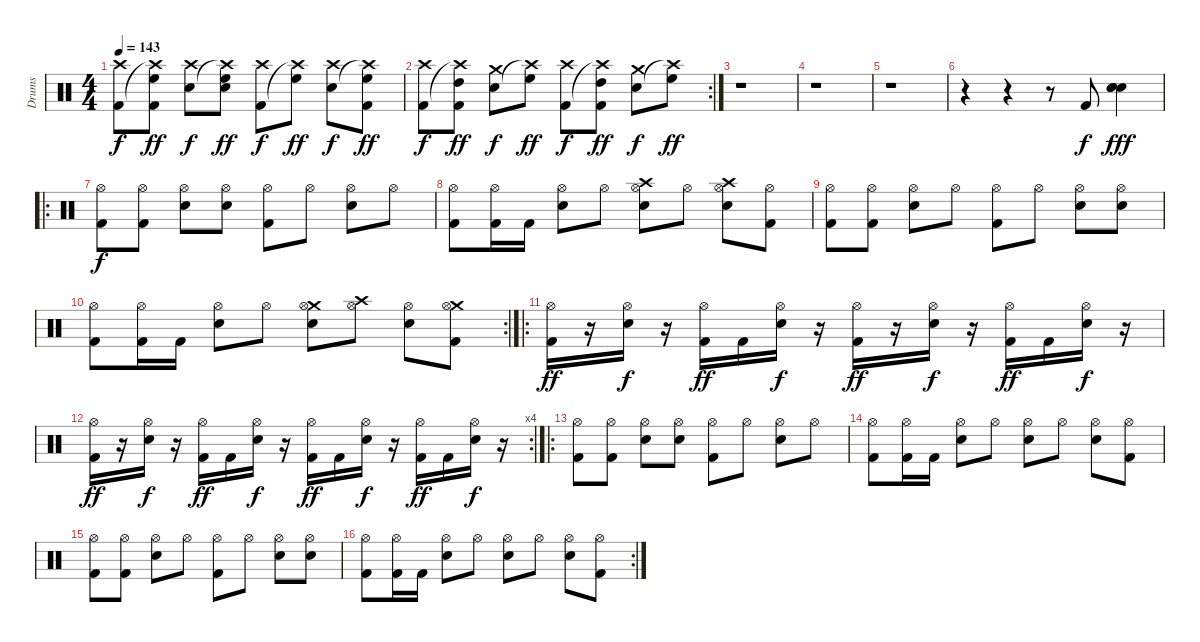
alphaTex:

\track ("Drums" "Drums") {instrument percussion}
\staff {score}
\articulation defaults
\ts (4 4)
\tempo 143
\clef neutral
\ks c
("Crash high (hit)" "Kick (hit) 2").8{dy f} ("High Floor Tom (hit)" "Crash high (hit)"{t} "Kick (hit) 2").8{dy ff} ("Crash high (hit)" "Electric Snare (hit)").8{dy f} ("High Floor Tom (hit)" "Crash high (hit)"{t} "Electric Snare (hit)").8{dy ff} ("Crash high (hit)" "Kick (hit) 2").8{dy f} ("High Floor Tom (hit)" "Crash high (hit)"{t}).8{dy ff} ("Crash high (hit)" "Electric Snare (hit)").8{dy f} ("High Floor Tom (hit)" "Crash high (hit)"{t} "Kick (hit) 2").8{dy ff} |
\rc 2
("Crash high (hit)" "Kick (hit) 2").8{dy f} ("High Tom (hit)" "Crash high (hit)"{t} "Kick (hit) 2").8{dy ff} ("Crash medium (hit)" "Electric Snare (hit)").8{dy f} ("High Floor Tom (hit)" "Crash high (hit)"{t}).8{dy ff} ("Crash high (hit)" "Kick (hit) 2").8{dy f} ("High Tom (hit)" "Crash high (hit)"{t} "Kick (hit) 2").8{dy ff} ("Crash medium (hit)" "Electric Snare (hit)").8{dy f} ("High Floor Tom (hit)" "Crash high (hit)"{t}).8{dy ff} |
r.1 |
r.1 |
r.1 |
r.4 r.4 r.8 "Kick (hit) 2".8{dy f} ("Electric Snare (hit)" "Electric Snare (hit)" "Electric Snare (hit)").4{dy fff} |
\ro
("Hi-Hat (open)" "Kick (hit) 2").8{dy f} ("Hi-Hat (open)" "Kick (hit) 2").8 ("Hi-Hat (open)" "Electric Snare (hit)").8 ("Hi-Hat (open)" "Electric Snare (hit)").8 ("Hi-Hat (open)" "Kick (hit) 2").8 "Hi-Hat (open)".8 ("Hi-Hat (open)" "Electric Snare (hit)").8 "Hi-Hat (open)".8 |
("Hi-Hat (open)" "Kick (hit) 2").8 ("Hi-Hat (open)" "Kick (hit) 2").16 "Kick (hit) 2".16 ("Hi-Hat (open)" "Electric Snare (hit)").8 "Hi-Hat (open)".8 ("Crash high (hit)" "Hi-Hat (open)" "Electric Snare (hit)").8 "Hi-Hat (open)".8 ("Crash high (hit)" "Hi-Hat (open)" "Electric Snare (hit)").8 ("Hi-Hat (open)" "Kick (hit) 2").8 |
("Hi-Hat (open)" "Kick (hit) 2").8 ("Hi-Hat (open)" "Kick (hit) 2").8 ("Hi-Hat (open)" "Electric Snare (hit)").8 "Hi-Hat (open)".8 ("Hi-Hat (open)" "Kick (hit) 2").8 "Hi-Hat (open)".8 ("Hi-Hat (open)" "Electric Snare (hit)").8 ("Hi-Hat (open)" "Electric Snare (hit)").8 |
\rc 2
("Hi-Hat (open)" "Kick (hit) 2").8 ("Hi-Hat (open)" "Kick (hit) 2").16 "Kick (hit) 2".16 ("Hi-Hat (open)" "Electric Snare (hit)").8 "Hi-Hat (open)".8 ("Crash medium (hit)" "Hi-Hat (open)" "Electric Snare (hit)").8 ("Crash high (hit)" "Hi-Hat (open)").8 ("Hi-Hat (open)" "Electric Snare (hit)").8 ("Crash medium (hit)" "Hi-Hat (open)" "Kick (hit) 2").8 |
\ro
("Hi-Hat (open)" "Kick (hit) 2").16{dy ff} r.16 ("Hi-Hat (open)" "Electric Snare (hit)").16{dy f} r.16 ("Hi-Hat (open)" "Kick (hit) 2").16{dy ff} "Kick (hit) 2".16 ("Hi-Hat (open)" "Electric Snare (hit)").16{dy f} r.16 ("Hi-Hat (open)" "Kick (hit) 2").16{dy ff} r.16 ("Hi-Hat (open)" "Electric Snare (hit)").16{dy f} r.16 ("Hi-Hat (open)" "Kick (hit) 2").16{dy ff} "Kick (hit) 2".16 ("Hi-Hat (open)" "Electric Snare (hit)").16{dy f} r.16 |
\rc 4
("Hi-Hat (open)" "Kick (hit) 2").16{dy ff} r.16 ("Hi-Hat (open)" "Electric Snare (hit)").16{dy f} r.16 ("Hi-Hat (open)" "Kick (hit) 2").16{dy ff} "Kick (hit) 2".16 ("Hi-Hat (open)" "Electric Snare (hit)").16{dy f} r.16 ("Hi-Hat (open)" "Kick (hit) 2").16{dy ff} "Kick (hit) 2".16 ("Hi-Hat (open)" "Electric Snare (hit)").16{dy f} r.16 ("Hi-Hat (open)" "Kick (hit) 2").16{dy ff} "Kick (hit) 2".16 ("Hi-Hat (open)" "Electric Snare (hit)").16{dy f} r.16 |
\ro
("Hi-Hat (open)" "Kick (hit) 2").8 ("Hi-Hat (open)" "Kick (hit) 2").8 ("Hi-Hat (open)" "Electric Snare (hit)").8 ("Hi-Hat (open)" "Electric Snare (hit)").8 ("Hi-Hat (open)" "Kick (hit) 2").8 "Hi-Hat (open)".8 ("Hi-Hat (open)" "Electric Snare (hit)").8 "Hi-Hat (open)".8 |
("Hi-Hat (open)" "Kick (hit) 2").8 ("Hi-Hat (open)" "Kick (hit) 2").16 "Kick (hit) 2".16 ("Hi-Hat (open)" "Electric Snare (hit)").8 "Hi-Hat (open)".8 ("Hi-Hat (open)" "Electric Snare (hit)").8 "Hi-Hat (open)".8 ("Hi-Hat (open)" "Electric Snare (hit)").8 ("Hi-Hat (open)" "Kick (hit) 2").8 |
("Hi-Hat (open)" "Kick (hit) 2").8 ("Hi-Hat (open)" "Kick (hit) 2").8 ("Hi-Hat (open)" "Electric Snare (hit)").8 "Hi-Hat (open)".8 ("Hi-Hat (open)" "Kick (hit) 2").8 "Hi-Hat (open)".8 ("Hi-Hat (open)" "Electric Snare (hit)").8 ("Hi-Hat (open)" "Electric Snare (hit)").8 |
\rc 2
("Hi-Hat (open)" "Kick (hit) 2").8 ("Hi-Hat (open)" "Kick (hit) 2").16 "Kick (hit) 2".16 ("Hi-Hat (open)" "Electric Snare (hit)").8 "Hi-Hat (open)".8 ("Hi-Hat (open)" "Electric Snare (hit)").8 "Hi-Hat (open)".8 ("Hi-Hat (open)" "Electric Snare (hit)").8 ("Hi-Hat (open)" "Kick (hit) 2").8
